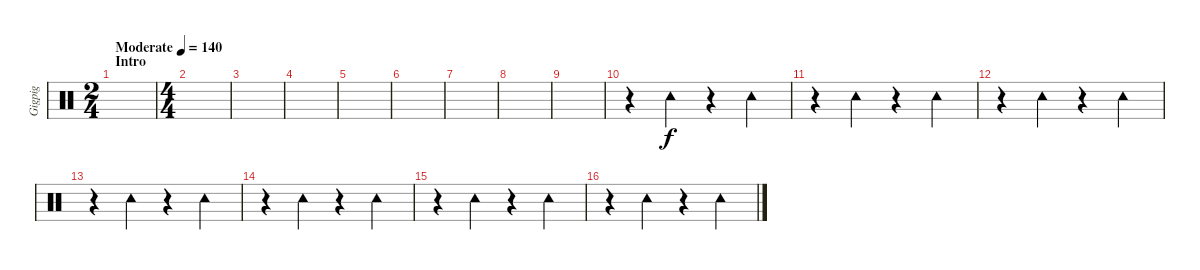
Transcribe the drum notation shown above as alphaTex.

\track ("Gigpig" "Gigpig") {instrument percussion}
\staff {score}
\articulation defaults
\ts (2 4)
\section ("" "Intro")
\tempo (140 "Moderate")
\clef neutral
\ks c
|
\ts (4 4)
|
|
|
|
|
|
|
|
r.4 "Tambourine (hit)".4 r.4 "Tambourine (hit)".4 |
r.4 "Tambourine (hit)".4 r.4 "Tambourine (hit)".4 |
r.4 "Tambourine (hit)".4 r.4 "Tambourine (hit)".4 |
r.4 "Tambourine (hit)".4 r.4 "Tambourine (hit)".4 |
r.4 "Tambourine (hit)".4 r.4 "Tambourine (hit)".4 |
r.4 "Tambourine (hit)".4 r.4 "Tambourine (hit)".4 |
r.4 "Tambourine (hit)".4 r.4 "Tambourine (hit)".4
